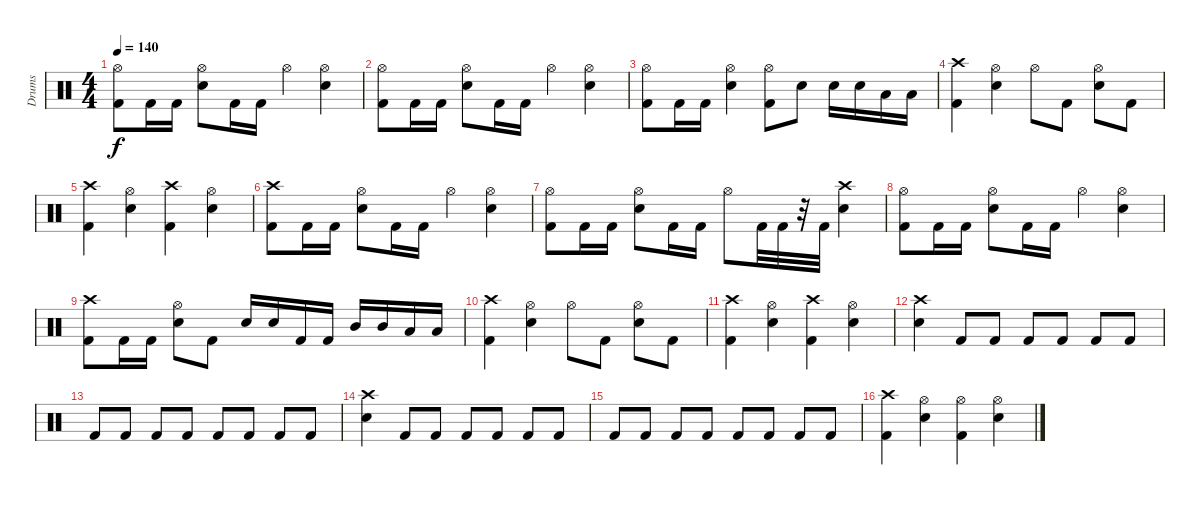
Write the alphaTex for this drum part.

\track ("Drums" "Drums") {instrument percussion}
\staff {score}
\articulation defaults
\ts (4 4)
\tempo 140
\clef neutral
\ks c
("Hi-Hat (open)" "Kick (hit) 2").8{dy f} "Kick (hit) 2".16 "Kick (hit) 2".16 ("Snare (hit) 2" "Hi-Hat (open)").8 "Kick (hit) 2".16 "Kick (hit) 2".16 "Hi-Hat (open)".4 ("Snare (hit) 2" "Hi-Hat (open)").4 |
("Kick (hit) 2" "Hi-Hat (open)").8 "Kick (hit) 2".16 "Kick (hit) 2".16 ("Hi-Hat (open)" "Snare (hit) 2").8 "Kick (hit) 2".16 "Kick (hit) 2".16 "Hi-Hat (open)".4 ("Hi-Hat (open)" "Snare (hit) 2").4 |
("Kick (hit) 2" "Hi-Hat (open)").8 "Kick (hit) 2".16 "Kick (hit) 2".16 ("Snare (hit) 2" "Hi-Hat (open)").4 ("Hi-Hat (open)" "Kick (hit) 2").8 "Snare (hit) 2".8 "Snare (hit) 2".16 "Snare (hit) 2".16 "Low Tom (hit)".16 "Low Tom (hit)".16 |
("Kick (hit) 2" "Crash high (hit)").4 ("Snare (hit) 2" "Hi-Hat (open)").4 "Hi-Hat (open)".8 "Kick (hit) 2".8 ("Snare (hit) 2" "Hi-Hat (open)").8 "Kick (hit) 2".8 |
("Crash high (hit)" "Kick (hit) 2").4 ("Hi-Hat (open)" "Snare (hit) 2").4 ("Crash high (hit)" "Kick (hit) 2").4 ("Hi-Hat (open)" "Snare (hit) 2").4 |
("Crash high (hit)" "Kick (hit) 2").8 "Kick (hit) 2".16 "Kick (hit) 2".16 ("Hi-Hat (open)" "Snare (hit) 2").8 "Kick (hit) 2".16 "Kick (hit) 2".16 "Hi-Hat (open)".4 ("Hi-Hat (open)" "Snare (hit) 2").4 |
("Hi-Hat (open)" "Kick (hit) 2").8 "Kick (hit) 2".16 "Kick (hit) 2".16 ("Hi-Hat (open)" "Snare (hit) 2").8 "Kick (hit) 2".16 "Kick (hit) 2".16 "Hi-Hat (open)".8 "Kick (hit) 2".32 "Kick (hit) 2".32 r.32 "Kick (hit) 2".32 ("Crash high (hit)" "Snare (hit) 2").4 |
("Kick (hit) 2" "Hi-Hat (open)").8 "Kick (hit) 2".16 "Kick (hit) 2".16 ("Snare (hit) 2" "Hi-Hat (open)").8 "Kick (hit) 2".16 "Kick (hit) 2".16 "Hi-Hat (open)".4 ("Snare (hit) 2" "Hi-Hat (open)").4 |
("Kick (hit) 2" "Crash high (hit)").8 "Kick (hit) 2".16 "Kick (hit) 2".16 ("Snare (hit) 2" "Hi-Hat (open)").8 "Kick (hit) 2".8 "Snare (hit) 2".16 "Snare (hit) 2".16 "Kick (hit) 2".16 "Kick (hit) 2".16 "Mid Tom (hit)".16 "Mid Tom (hit)".16 "Low Tom (hit)".16 "Low Tom (hit)".16 |
("Crash high (hit)" "Kick (hit) 2").4 ("Hi-Hat (open)" "Snare (hit) 2").4 "Hi-Hat (open)".8 "Kick (hit) 2".8 ("Snare (hit) 2" "Hi-Hat (open)").8 "Kick (hit) 2".8 |
("Crash high (hit)" "Kick (hit) 2").4 ("Snare (hit) 2" "Hi-Hat (open)").4 ("Kick (hit) 2" "Crash high (hit)").4 ("Snare (hit) 2" "Hi-Hat (open)").4 |
("Crash high (hit)" "Snare (hit) 2").4 "Kick (hit) 2".8 "Kick (hit) 2".8 "Kick (hit) 2".8 "Kick (hit) 2".8 "Kick (hit) 2".8 "Kick (hit) 2".8 |
"Kick (hit) 2".8 "Kick (hit) 2".8 "Kick (hit) 2".8 "Kick (hit) 2".8 "Kick (hit) 2".8 "Kick (hit) 2".8 "Kick (hit) 2".8 "Kick (hit) 2".8 |
("Snare (hit) 2" "Crash high (hit)").4 "Kick (hit) 2".8 "Kick (hit) 2".8 "Kick (hit) 2".8 "Kick (hit) 2".8 "Kick (hit) 2".8 "Kick (hit) 2".8 |
"Kick (hit) 2".8 "Kick (hit) 2".8 "Kick (hit) 2".8 "Kick (hit) 2".8 "Kick (hit) 2".8 "Kick (hit) 2".8 "Kick (hit) 2".8 "Kick (hit) 2".8 |
("Crash high (hit)" "Kick (hit) 2").4 ("Snare (hit) 2" "Hi-Hat (open)").4 ("Kick (hit) 2" "Hi-Hat (open)").4 ("Hi-Hat (open)" "Snare (hit) 2").4
